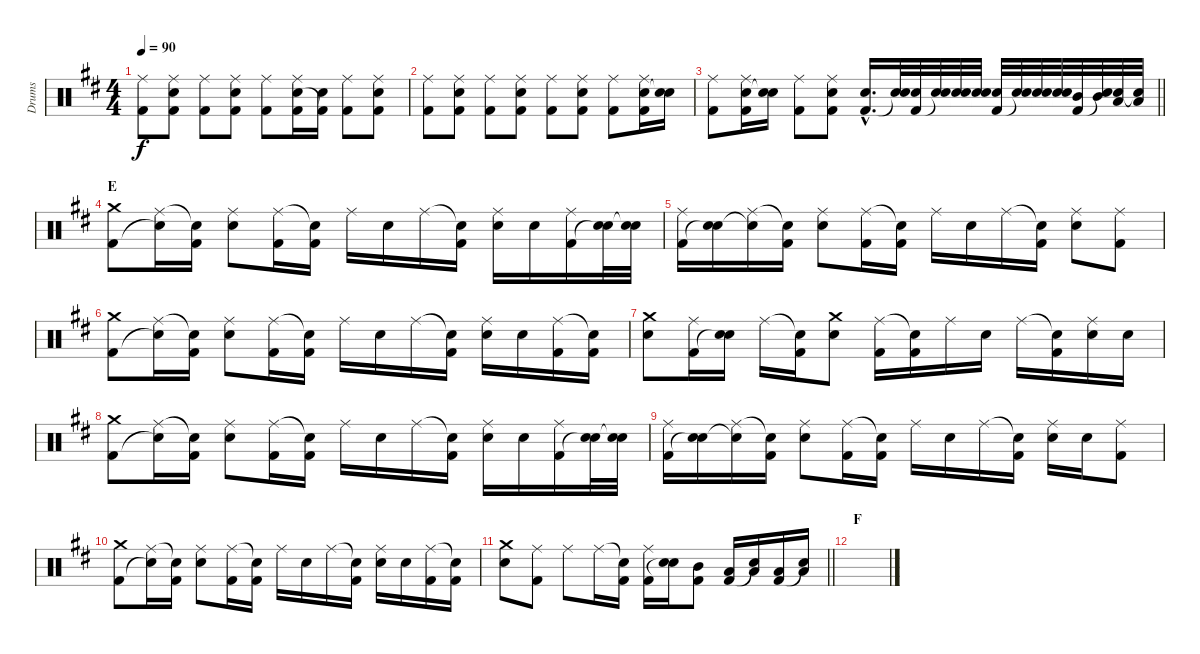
\track ("Drums" "Drums") {instrument percussion}
\staff {score}
\articulation defaults
\ts (4 4)
\tempo 90
\clef neutral
\ks d
("Ride (middle)" "Kick (hit) 2").8{dy f} ("Ride (middle)" "Electric Snare (hit)" "Kick (hit) 2").8 ("Ride (middle)" "Kick (hit) 2").8 ("Ride (middle)" "Electric Snare (hit)" "Kick (hit) 2").8 ("Ride (middle)" "Kick (hit) 2").8 ("Ride (middle)" "Electric Snare (hit)" "Kick (hit) 2").16 ("Electric Snare (hit)" "Kick (hit) 2"{t}).16 ("Ride (middle)" "Kick (hit) 2").8 ("Ride (middle)" "Electric Snare (hit)" "Kick (hit) 2").8 |
("Ride (middle)" "Kick (hit) 2").8 ("Ride (middle)" "Electric Snare (hit)" "Kick (hit) 2").8 ("Ride (middle)" "Kick (hit) 2").8 ("Ride (middle)" "Electric Snare (hit)" "Kick (hit) 2").8 ("Ride (middle)" "Kick (hit) 2").8 ("Ride (middle)" "Electric Snare (hit)" "Kick (hit) 2").8 ("Ride (middle)" "Kick (hit) 2").8 ("Ride (middle)" "Electric Snare (hit)" "Kick (hit) 2").16 ("Electric Snare (hit)" "Snare (hit)"{t}).16 |
\barLineRight lightlight
("Ride (middle)" "Kick (hit) 2").8 ("Ride (middle)" "Electric Snare (hit)" "Kick (hit) 2").16 ("Electric Snare (hit)" "Snare (hit)"{t}).16 ("Ride (middle)" "Kick (hit) 2").8 ("Ride (middle)" "Electric Snare (hit)" "Kick (hit) 2").8 ("Electric Snare (hit)"{hac} "Kick (hit) 2"{hac}).16{d} ("Electric Snare (hit)" "Snare (hit)"{t}).32 ("Electric Snare (hit)" "Kick (hit) 2").32 ("Electric Snare (hit)" "Snare (hit)"{t}).32 ("Electric Snare (hit)" "Snare (hit)"{t}).32 ("Electric Snare (hit)" "Snare (hit)"{t}).32 ("Electric Snare (hit)" "Kick (hit) 2").32 ("Electric Snare (hit)" "Snare (hit)"{t}).32 ("Electric Snare (hit)" "Snare (hit)"{t}).32 ("Electric Snare (hit)" "Snare (hit)"{t}).32 ("Mid Tom (hit)" "Kick (hit) 2").32 ("Mid Tom (hit)" "Snare (hit)"{t}).32 ("Low Tom (hit)" "Snare (hit)"{t}).32 ("Low Tom (hit)" "Snare (hit)"{t}).32 |
\section ("" "E")
("Crash medium (hit)" "Kick (hit) 2").8 ("Ride (middle)" "Snare (hit)"{t}).16 ("Snare (hit)"{t} "Kick (hit) 2").16 ("Ride (middle)" "Electric Snare (hit)").8 ("Ride (middle)" "Kick (hit) 2").16 ("Snare (hit)"{t} "Kick (hit) 2").16 "Ride (middle)".16 "Electric Snare (hit)".16 "Ride (middle)".16 ("Snare (hit)"{t} "Kick (hit) 2").16 ("Ride (middle)" "Electric Snare (hit)").16 "Electric Snare (hit)".16 ("Ride (middle)" "Kick (hit) 2").16 ("Electric Snare (hit)" "Snare (hit)"{t}).32 ("Electric Snare (hit)" "Snare (hit)"{t}).32 |
("Ride (middle)" "Kick (hit) 2").16 ("Electric Snare (hit)" "Snare (hit)"{t}).16 ("Ride (middle)" "Snare (hit)"{t}).16 ("Snare (hit)"{t} "Kick (hit) 2").16 ("Ride (middle)" "Electric Snare (hit)").8 ("Ride (middle)" "Kick (hit) 2").16 ("Snare (hit)"{t} "Kick (hit) 2").16 "Ride (middle)".16 "Electric Snare (hit)".16 "Ride (middle)".16 ("Snare (hit)"{t} "Kick (hit) 2").16 ("Ride (middle)" "Electric Snare (hit)").8 ("Ride (middle)" "Kick (hit) 2").8 |
("Crash medium (hit)" "Kick (hit) 2").8 ("Ride (middle)" "Snare (hit)"{t}).16 ("Snare (hit)"{t} "Kick (hit) 2").16 ("Ride (middle)" "Electric Snare (hit)").8 ("Ride (middle)" "Kick (hit) 2").16 ("Snare (hit)"{t} "Kick (hit) 2").16 "Ride (middle)".16 "Electric Snare (hit)".16 "Ride (middle)".16 ("Snare (hit)"{t} "Kick (hit) 2").16 ("Ride (middle)" "Electric Snare (hit)").16 "Electric Snare (hit)".16 ("Ride (middle)" "Kick (hit) 2").16 ("Snare (hit)"{t} "Kick (hit) 2").16 |
("Crash medium (hit)" "Electric Snare (hit)").8 ("Ride (middle)" "Kick (hit) 2").16 ("Electric Snare (hit)" "Snare (hit)"{t}).16 "Ride (middle)".16 ("Snare (hit)"{t} "Kick (hit) 2").16 ("Crash medium (hit)" "Electric Snare (hit)").8 ("Ride (middle)" "Kick (hit) 2").16 ("Snare (hit)"{t} "Kick (hit) 2").16 "Ride (middle)".16 "Electric Snare (hit)".16 "Ride (middle)".16 ("Snare (hit)"{t} "Kick (hit) 2").16 ("Ride (middle)" "Electric Snare (hit)").16 "Electric Snare (hit)".16 |
("Crash medium (hit)" "Kick (hit) 2").8 ("Ride (middle)" "Snare (hit)"{t}).16 ("Snare (hit)"{t} "Kick (hit) 2").16 ("Ride (middle)" "Electric Snare (hit)").8 ("Ride (middle)" "Kick (hit) 2").16 ("Snare (hit)"{t} "Kick (hit) 2").16 "Ride (middle)".16 "Electric Snare (hit)".16 "Ride (middle)".16 ("Snare (hit)"{t} "Kick (hit) 2").16 ("Ride (middle)" "Electric Snare (hit)").16 "Electric Snare (hit)".16 ("Ride (middle)" "Kick (hit) 2").16 ("Electric Snare (hit)" "Snare (hit)"{t}).32 ("Electric Snare (hit)" "Snare (hit)"{t}).32 |
("Ride (middle)" "Kick (hit) 2").16 ("Electric Snare (hit)" "Snare (hit)"{t}).16 ("Ride (middle)" "Snare (hit)"{t}).16 ("Snare (hit)"{t} "Kick (hit) 2").16 ("Ride (middle)" "Electric Snare (hit)").8 ("Ride (middle)" "Kick (hit) 2").16 ("Snare (hit)"{t} "Kick (hit) 2").16 "Ride (middle)".16 "Electric Snare (hit)".16 "Ride (middle)".16 ("Snare (hit)"{t} "Kick (hit) 2").16 ("Ride (middle)" "Electric Snare (hit)").16 "Electric Snare (hit)".16 ("Ride (middle)" "Kick (hit) 2").8 |
("Crash medium (hit)" "Kick (hit) 2").8 ("Ride (middle)" "Snare (hit)"{t}).16 ("Snare (hit)"{t} "Kick (hit) 2").16 ("Ride (middle)" "Electric Snare (hit)").8 ("Ride (middle)" "Kick (hit) 2").16 ("Snare (hit)"{t} "Kick (hit) 2").16 "Ride (middle)".16 "Electric Snare (hit)".16 "Ride (middle)".16 ("Snare (hit)"{t} "Kick (hit) 2").16 ("Ride (middle)" "Electric Snare (hit)").16 "Electric Snare (hit)".16 ("Ride (middle)" "Kick (hit) 2").16 ("Snare (hit)"{t} "Kick (hit) 2").16 |
\barLineRight lightlight
("Crash medium (hit)" "Electric Snare (hit)").8 ("Ride (middle)" "Kick (hit) 2").8 "Ride (middle)".8 "Ride (middle)".16 ("Snare (hit)"{t} "Kick (hit) 2").16 ("Ride (middle)" "Kick (hit) 2").16 ("Electric Snare (hit)" "Snare (hit)"{t}).16 ("Mid Tom (hit)" "Kick (hit) 2").8 ("Low Tom (hit)" "Kick (hit) 2").16 ("Low Tom (hit)" "Snare (hit)"{t}).16 ("Low Floor Tom (hit)" "Kick (hit) 2").16 ("Low Floor Tom (hit)" "Snare (hit)"{t}).16 |
\section ("" "F")
